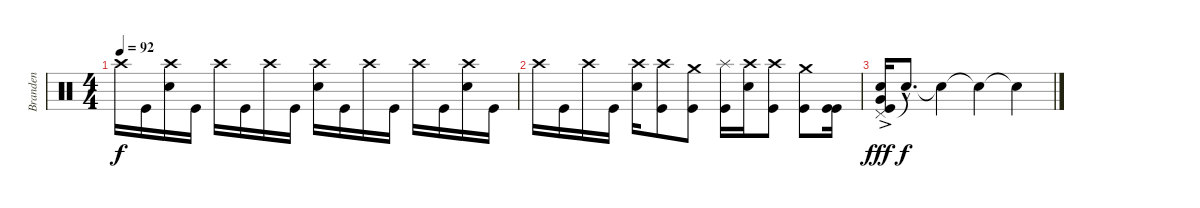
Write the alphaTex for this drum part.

\track ("Branden" "Branden") {instrument percussion}
\staff {score}
\articulation defaults
\ts (4 4)
\tempo 92
\clef neutral
\ks c "Crash high (hit)".16{dy f} "Kick (hit)".16
("Crash high (hit)" "Snare (hit) 2").16 "Kick (hit)".16 "Crash high (hit)".16 "Kick (hit)".16 "Crash high (hit)".16 "Kick (hit)".16 ("Crash high (hit)" "Snare (hit) 2").16 "Kick (hit)".16 "Crash high (hit)".16 "Kick (hit)".16 "Crash high (hit)".16 "Kick (hit)".16 ("Crash high (hit)" "Snare (hit) 2").16 "Kick (hit)".16 |
"Crash high (hit)".16 "Kick (hit)".16 "Crash high (hit)".16 "Kick (hit)".16 ("Crash high (hit)" "Snare (hit) 2").16 ("Crash high (hit)" "Kick (hit)").8 ("Crash medium (hit)" "Kick (hit)").8 ("Splash (hit)" "Kick (hit)").16 ("Crash high (hit)" "Snare (hit) 2").16 ("Crash high (hit)" "Kick (hit)").8 ("Crash medium (hit)" "Kick (hit)").8 ("Kick (hit)" "Kick (hit)").16 |
("Pedal Hi-Hat (hit)"{ac} "Very Low Tom (hit)" "Snare (hit) 2" "Kick (hit)").16{dy fff} "Snare (hit)"{hac t}.8{d dy f} "Snare (hit)"{t}.4 "Snare (hit)"{t}.4 "Snare (hit)"{t}.4
